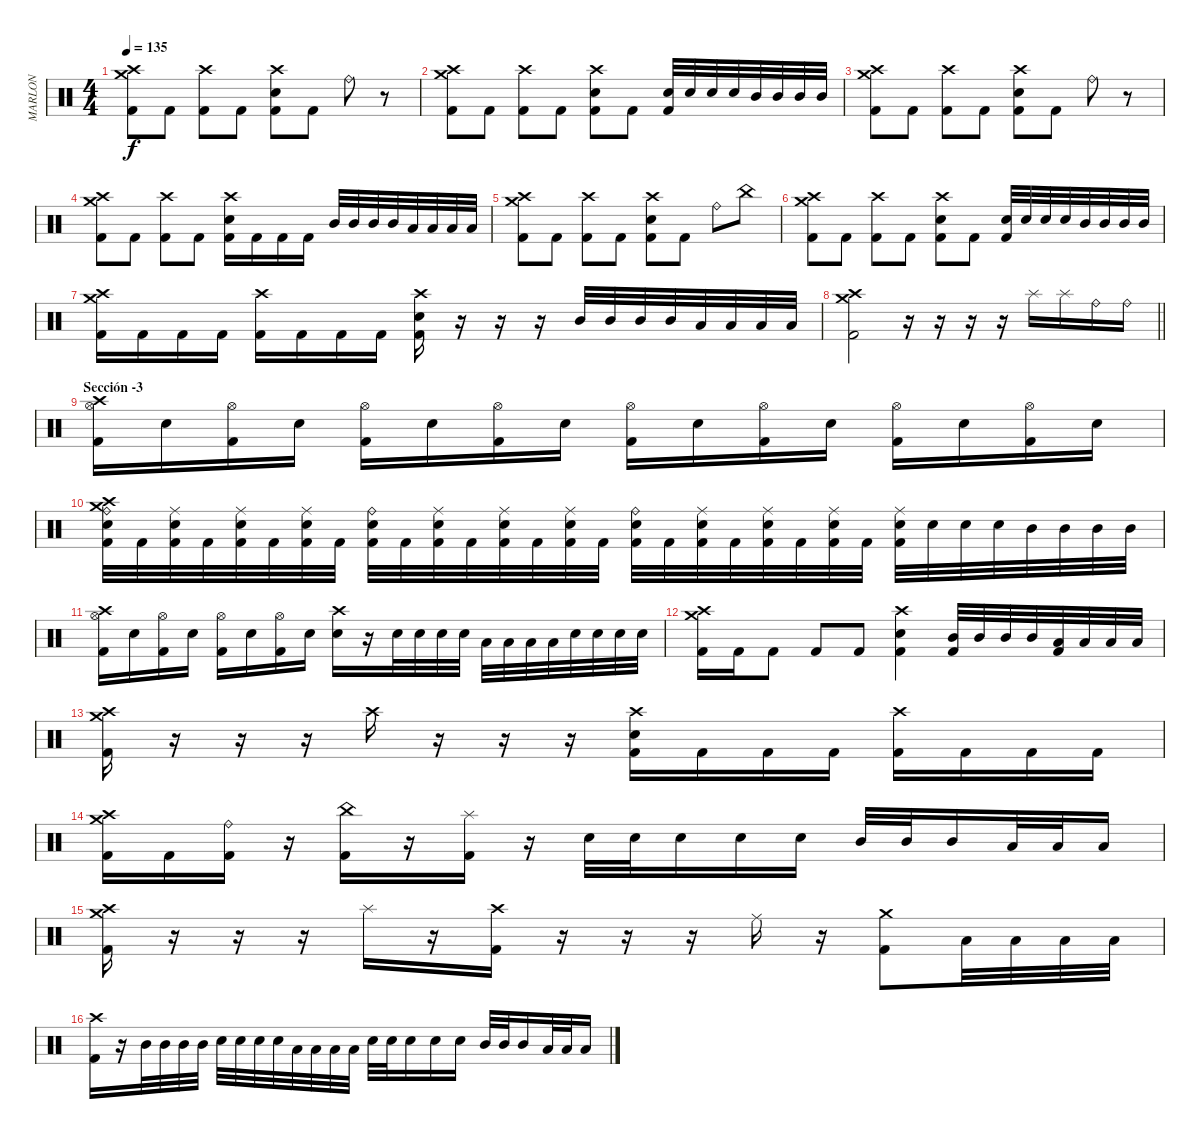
\track ("MARLON" "MARLON") {instrument percussion}
\staff {score}
\articulation defaults
\ts (4 4)
\tempo 135
\clef neutral
\ks c
("Crash high (hit)" "Crash medium (hit)" "Kick (hit) 2").8{dy f} "Kick (hit) 2".8 ("Crash high (hit)" "Kick (hit) 2").8 "Kick (hit) 2".8 ("Crash high (hit)" "Electric Snare (hit)" "Kick (hit) 2").8 "Kick (hit) 2".8 "Ride (bell)".8 r.8 |
("Crash high (hit)" "Crash medium (hit)" "Kick (hit) 2").8 "Kick (hit) 2".8 ("Crash high (hit)" "Kick (hit) 2").8 "Kick (hit) 2".8 ("Crash high (hit)" "Electric Snare (hit)" "Kick (hit) 2").8 "Kick (hit) 2".8 ("Electric Snare (hit)" "Kick (hit) 2").32 "Electric Snare (hit)".32 "Electric Snare (hit)".32 "Electric Snare (hit)".32 "Mid Tom (hit)".32 "Mid Tom (hit)".32 "Mid Tom (hit)".32 "Mid Tom (hit)".32 |
("Crash high (hit)" "Crash medium (hit)" "Kick (hit) 2").8 "Kick (hit) 2".8 ("Crash high (hit)" "Kick (hit) 2").8 "Kick (hit) 2".8 ("Crash high (hit)" "Electric Snare (hit)" "Kick (hit) 2").8 "Kick (hit) 2".8 "Ride (bell)".8 r.8 |
("Crash high (hit)" "Crash medium (hit)" "Kick (hit) 2").8 "Kick (hit) 2".8 ("Crash high (hit)" "Kick (hit) 2").8 "Kick (hit) 2".8 ("Crash high (hit)" "Electric Snare (hit)" "Kick (hit) 2").16 "Kick (hit) 2".16 "Kick (hit) 2".16 "Kick (hit) 2".16 "Mid Tom (hit)".32 "Mid Tom (hit)".32 "Mid Tom (hit)".32 "Mid Tom (hit)".32 "Low Tom (hit)".32 "Low Tom (hit)".32 "Low Tom (hit)".32 "Low Tom (hit)".32 |
("Crash high (hit)" "Crash medium (hit)" "Kick (hit) 2").8 "Kick (hit) 2".8 ("Crash high (hit)" "Kick (hit) 2").8 "Kick (hit) 2".8 ("Crash high (hit)" "Electric Snare (hit)" "Kick (hit) 2").8 "Kick (hit) 2".8 "Ride (bell)".8 "China (hit)".8 |
("Crash high (hit)" "Crash medium (hit)" "Kick (hit) 2").8 "Kick (hit) 2".8 ("Crash high (hit)" "Kick (hit) 2").8 "Kick (hit) 2".8 ("Crash high (hit)" "Electric Snare (hit)" "Kick (hit) 2").8 "Kick (hit) 2".8 ("Electric Snare (hit)" "Kick (hit) 2").32 "Electric Snare (hit)".32 "Electric Snare (hit)".32 "Electric Snare (hit)".32 "Mid Tom (hit)".32 "Mid Tom (hit)".32 "Mid Tom (hit)".32 "Mid Tom (hit)".32 |
("Crash high (hit)" "Crash medium (hit)" "Kick (hit) 2").16 "Kick (hit) 2".16 "Kick (hit) 2".16 "Kick (hit) 2".16 ("Crash high (hit)" "Kick (hit) 2").16 "Kick (hit) 2".16 "Kick (hit) 2".16 "Kick (hit) 2".16 ("Crash high (hit)" "Electric Snare (hit)" "Kick (hit) 2").16 r.16 r.16 r.16 "Mid Tom (hit)".32 "Mid Tom (hit)".32 "Mid Tom (hit)".32 "Mid Tom (hit)".32 "Low Tom (hit)".32 "Low Tom (hit)".32 "Low Tom (hit)".32 "Low Tom (hit)".32 |
\barLineRight lightlight
("Crash high (hit)" "Crash medium (hit)" "Kick (hit) 2").2 r.16 r.16 r.16 r.16 "Splash (hit)".16 "Splash (hit)".16 "Ride (bell)".16 "Ride (bell)".16 |
\section ("" "Sección -3")
("Crash high (hit)" "Hi-Hat (open)" "Kick (hit) 2").16 "Electric Snare (hit)".16 ("Hi-Hat (open)" "Kick (hit) 2").16 "Electric Snare (hit)".16 ("Hi-Hat (open)" "Kick (hit) 2").16 "Electric Snare (hit)".16 ("Hi-Hat (open)" "Kick (hit) 2").16 "Electric Snare (hit)".16 ("Hi-Hat (open)" "Kick (hit) 2").16 "Electric Snare (hit)".16 ("Hi-Hat (open)" "Kick (hit) 2").16 "Electric Snare (hit)".16 ("Hi-Hat (open)" "Kick (hit) 2").16 "Electric Snare (hit)".16 ("Hi-Hat (open)" "Kick (hit) 2").16 "Electric Snare (hit)".16 |
("Crash medium (hit)" "Crash high (hit)" "Ride (bell)" "Electric Snare (hit)" "Kick (hit) 2").32 "Kick (hit) 2".32 ("Ride (middle)" "Electric Snare (hit)" "Kick (hit) 2").32 "Kick (hit) 2".32 ("Ride (middle)" "Electric Snare (hit)" "Kick (hit) 2").32 "Kick (hit) 2".32 ("Ride (middle)" "Electric Snare (hit)" "Kick (hit) 2").32 "Kick (hit) 2".32 ("Ride (bell)" "Electric Snare (hit)" "Kick (hit) 2").32 "Kick (hit) 2".32 ("Ride (middle)" "Electric Snare (hit)" "Kick (hit) 2").32 "Kick (hit) 2".32 ("Ride (middle)" "Electric Snare (hit)" "Kick (hit) 2").32 "Kick (hit) 2".32 ("Ride (middle)" "Electric Snare (hit)" "Kick (hit) 2").32 "Kick (hit) 2".32 ("Ride (bell)" "Electric Snare (hit)" "Kick (hit) 2").32 "Kick (hit) 2".32 ("Ride (middle)" "Electric Snare (hit)" "Kick (hit) 2").32 "Kick (hit) 2".32 ("Ride (middle)" "Electric Snare (hit)" "Kick (hit) 2").32 "Kick (hit) 2".32 ("Ride (middle)" "Electric Snare (hit)" "Kick (hit) 2").32 "Kick (hit) 2".32 ("Ride (middle)" "Electric Snare (hit)" "Kick (hit) 2").32 "Electric Snare (hit)".32 "Electric Snare (hit)".32 "Electric Snare (hit)".32 "Mid Tom (hit)".32 "Mid Tom (hit)".32 "Mid Tom (hit)".32 "Mid Tom (hit)".32 |
("Crash high (hit)" "Hi-Hat (open)" "Kick (hit) 2").16 "Electric Snare (hit)".16 ("Hi-Hat (open)" "Kick (hit) 2").16 "Electric Snare (hit)".16 ("Hi-Hat (open)" "Kick (hit) 2").16 "Electric Snare (hit)".16 ("Hi-Hat (open)" "Kick (hit) 2").16 "Electric Snare (hit)".16 ("Crash high (hit)" "Electric Snare (hit)").16 r.16 "Electric Snare (hit)".32 "Electric Snare (hit)".32 "Electric Snare (hit)".32 "Electric Snare (hit)".32 "Low Tom (hit)".32 "Low Tom (hit)".32 "Low Tom (hit)".32 "Low Tom (hit)".32 "Electric Snare (hit)".32 "Electric Snare (hit)".32 "Electric Snare (hit)".32 "Electric Snare (hit)".32 |
("Crash high (hit)" "Crash medium (hit)" "Kick (hit) 2").16 "Kick (hit) 2".16 "Kick (hit) 2".8 "Kick (hit) 2".8 "Kick (hit) 2".8 ("Crash high (hit)" "Electric Snare (hit)" "Kick (hit) 2").4 ("Mid Tom (hit)" "Kick (hit) 2").32 "Mid Tom (hit)".32 "Mid Tom (hit)".32 "Mid Tom (hit)".32 ("Low Tom (hit)" "Kick (hit) 2").32 "Low Tom (hit)".32 "Low Tom (hit)".32 "Low Tom (hit)".32 |
("Crash high (hit)" "Crash medium (hit)" "Kick (hit) 2").16 r.16 r.16 r.16 "Crash high (hit)".16 r.16 r.16 r.16 ("Crash high (hit)" "Electric Snare (hit)" "Kick (hit) 2").16 "Kick (hit) 2".16 "Kick (hit) 2".16 "Kick (hit) 2".16 ("Crash high (hit)" "Kick (hit) 2").16 "Kick (hit) 2".16 "Kick (hit) 2".16 "Kick (hit) 2".16 |
("Crash high (hit)" "Crash medium (hit)" "Kick (hit) 2").16 "Kick (hit) 2".16 ("Ride (bell)" "Kick (hit) 2").16 r.16 ("China (hit)" "Kick (hit) 2").16 r.16 ("Splash (hit)" "Kick (hit) 2").16 r.16 "Electric Snare (hit)".32 "Electric Snare (hit)".32 "Electric Snare (hit)".16 "Electric Snare (hit)".16 "Electric Snare (hit)".16 "Mid Tom (hit)".32 "Mid Tom (hit)".32 "Mid Tom (hit)".16 "Low Tom (hit)".32 "Low Tom (hit)".32 "Low Tom (hit)".16 |
("Crash high (hit)" "Crash medium (hit)" "Kick (hit) 2").16 r.16 r.16 r.16 "Splash (hit)".16 r.16 ("Crash high (hit)" "Kick (hit) 2").16 r.16 r.16 r.16 "Ride (middle)".16 r.16 ("Crash medium (hit)" "Kick (hit) 2").8 "Low Tom (hit)".32 "Low Tom (hit)".32 "Low Tom (hit)".32 "Low Tom (hit)".32 |
("Crash high (hit)" "Kick (hit) 2").16 r.16 "Mid Tom (hit)".32 "Mid Tom (hit)".32 "Mid Tom (hit)".32 "Mid Tom (hit)".32 "Electric Snare (hit)".32 "Electric Snare (hit)".32 "Electric Snare (hit)".32 "Electric Snare (hit)".32 "Low Tom (hit)".32 "Low Tom (hit)".32 "Low Tom (hit)".32 "Low Tom (hit)".32 "Electric Snare (hit)".32 "Electric Snare (hit)".32 "Electric Snare (hit)".16 "Electric Snare (hit)".16 "Electric Snare (hit)".16 "Mid Tom (hit)".32 "Mid Tom (hit)".32 "Mid Tom (hit)".16 "Low Tom (hit)".32 "Low Tom (hit)".32 "Low Tom (hit)".16
